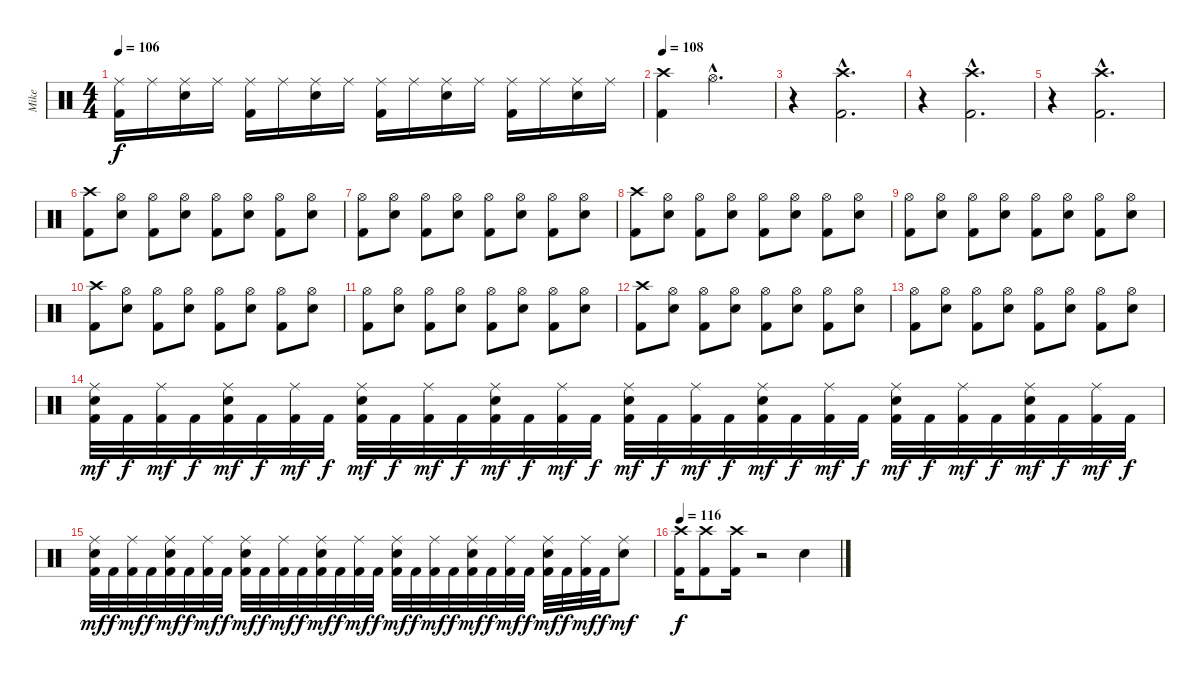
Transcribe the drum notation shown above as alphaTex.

\track ("Mike" "Mike") {instrument percussion}
\staff {score}
\articulation defaults
\ts (4 4)
\tempo 106
\clef neutral
\ks c
("Ride (middle)" "Kick (hit) 2").16{dy f} "Ride (middle)".16 ("Ride (middle)" "Snare (hit) 2").16 "Ride (middle)".16 ("Ride (middle)" "Kick (hit) 2").16 "Ride (middle)".16 ("Ride (middle)" "Snare (hit) 2").16 "Ride (middle)".16 ("Ride (middle)" "Kick (hit) 2").16 "Ride (middle)".16 ("Ride (middle)" "Snare (hit) 2").16 "Ride (middle)".16 ("Ride (middle)" "Kick (hit) 2").16 "Ride (middle)".16 ("Ride (middle)" "Snare (hit) 2").16 "Ride (middle)".16 |
\tempo 108
("Crash high (hit)" "Kick (hit) 2").4 "Hi-Hat (open)"{hac}.2{d} |
r.4 ("Crash high (hit)"{hac} "Kick (hit) 2"{hac}).2{d} |
r.4 ("Crash high (hit)"{hac} "Kick (hit) 2"{hac}).2{d} |
r.4 ("Crash high (hit)"{hac} "Kick (hit) 2"{hac}).2{d} |
("Crash high (hit)" "Kick (hit) 2").8 ("Hi-Hat (open)" "Snare (hit) 2").8 ("Hi-Hat (open)" "Kick (hit) 2").8 ("Hi-Hat (open)" "Snare (hit) 2").8 ("Hi-Hat (open)" "Kick (hit) 2").8 ("Hi-Hat (open)" "Snare (hit) 2").8 ("Hi-Hat (open)" "Kick (hit) 2").8 ("Hi-Hat (open)" "Snare (hit) 2").8 |
("Hi-Hat (open)" "Kick (hit) 2").8 ("Hi-Hat (open)" "Snare (hit) 2").8 ("Hi-Hat (open)" "Kick (hit) 2").8 ("Hi-Hat (open)" "Snare (hit) 2").8 ("Hi-Hat (open)" "Kick (hit) 2").8 ("Hi-Hat (open)" "Snare (hit) 2").8 ("Hi-Hat (open)" "Kick (hit) 2").8 ("Hi-Hat (open)" "Snare (hit) 2").8 |
("Crash high (hit)" "Kick (hit) 2").8 ("Hi-Hat (open)" "Snare (hit) 2").8 ("Hi-Hat (open)" "Kick (hit) 2").8 ("Hi-Hat (open)" "Snare (hit) 2").8 ("Hi-Hat (open)" "Kick (hit) 2").8 ("Hi-Hat (open)" "Snare (hit) 2").8 ("Hi-Hat (open)" "Kick (hit) 2").8 ("Hi-Hat (open)" "Snare (hit) 2").8 |
("Hi-Hat (open)" "Kick (hit) 2").8 ("Hi-Hat (open)" "Snare (hit) 2").8 ("Hi-Hat (open)" "Kick (hit) 2").8 ("Hi-Hat (open)" "Snare (hit) 2").8 ("Hi-Hat (open)" "Kick (hit) 2").8 ("Hi-Hat (open)" "Snare (hit) 2").8 ("Hi-Hat (open)" "Kick (hit) 2").8 ("Hi-Hat (open)" "Snare (hit) 2").8 |
("Crash high (hit)" "Kick (hit) 2").8 ("Hi-Hat (open)" "Snare (hit) 2").8 ("Hi-Hat (open)" "Kick (hit) 2").8 ("Hi-Hat (open)" "Snare (hit) 2").8 ("Hi-Hat (open)" "Kick (hit) 2").8 ("Hi-Hat (open)" "Snare (hit) 2").8 ("Hi-Hat (open)" "Kick (hit) 2").8 ("Hi-Hat (open)" "Snare (hit) 2").8 |
("Hi-Hat (open)" "Kick (hit) 2").8 ("Hi-Hat (open)" "Snare (hit) 2").8 ("Hi-Hat (open)" "Kick (hit) 2").8 ("Hi-Hat (open)" "Snare (hit) 2").8 ("Hi-Hat (open)" "Kick (hit) 2").8 ("Hi-Hat (open)" "Snare (hit) 2").8 ("Hi-Hat (open)" "Kick (hit) 2").8 ("Hi-Hat (open)" "Snare (hit) 2").8 |
("Crash high (hit)" "Kick (hit) 2").8 ("Hi-Hat (open)" "Snare (hit) 2").8 ("Hi-Hat (open)" "Kick (hit) 2").8 ("Hi-Hat (open)" "Snare (hit) 2").8 ("Hi-Hat (open)" "Kick (hit) 2").8 ("Hi-Hat (open)" "Snare (hit) 2").8 ("Hi-Hat (open)" "Kick (hit) 2").8 ("Hi-Hat (open)" "Snare (hit) 2").8 |
("Hi-Hat (open)" "Kick (hit) 2").8 ("Hi-Hat (open)" "Snare (hit) 2").8 ("Hi-Hat (open)" "Kick (hit) 2").8 ("Hi-Hat (open)" "Snare (hit) 2").8 ("Hi-Hat (open)" "Kick (hit) 2").8 ("Hi-Hat (open)" "Snare (hit) 2").8 ("Hi-Hat (open)" "Kick (hit) 2").8 ("Hi-Hat (open)" "Snare (hit) 2").8 |
("Ride (middle)" "Snare (hit) 2" "Kick (hit) 2").32{dy mf} "Kick (hit) 2".32{dy f} ("Ride (middle)" "Kick (hit) 2").32{dy mf} "Kick (hit) 2".32{dy f} ("Ride (middle)" "Snare (hit) 2" "Kick (hit) 2").32{dy mf} "Kick (hit) 2".32{dy f} ("Ride (middle)" "Kick (hit) 2").32{dy mf} "Kick (hit) 2".32{dy f} ("Ride (middle)" "Snare (hit) 2" "Kick (hit) 2").32{dy mf} "Kick (hit) 2".32{dy f} ("Ride (middle)" "Kick (hit) 2").32{dy mf} "Kick (hit) 2".32{dy f} ("Ride (middle)" "Snare (hit) 2" "Kick (hit) 2").32{dy mf} "Kick (hit) 2".32{dy f} ("Ride (middle)" "Kick (hit) 2").32{dy mf} "Kick (hit) 2".32{dy f} ("Ride (middle)" "Snare (hit) 2" "Kick (hit) 2").32{dy mf} "Kick (hit) 2".32{dy f} ("Ride (middle)" "Kick (hit) 2").32{dy mf} "Kick (hit) 2".32{dy f} ("Ride (middle)" "Snare (hit) 2" "Kick (hit) 2").32{dy mf} "Kick (hit) 2".32{dy f} ("Ride (middle)" "Kick (hit) 2").32{dy mf} "Kick (hit) 2".32{dy f} ("Ride (middle)" "Snare (hit) 2" "Kick (hit) 2").32{dy mf} "Kick (hit) 2".32{dy f} ("Ride (middle)" "Kick (hit) 2").32{dy mf} "Kick (hit) 2".32{dy f} ("Ride (middle)" "Snare (hit) 2" "Kick (hit) 2").32{dy mf} "Kick (hit) 2".32{dy f} ("Ride (middle)" "Kick (hit) 2").32{dy mf} "Kick (hit) 2".32{dy f} |
("Ride (middle)" "Snare (hit) 2" "Kick (hit) 2").32{dy mf} "Kick (hit) 2".32{dy f} ("Ride (middle)" "Kick (hit) 2").32{dy mf} "Kick (hit) 2".32{dy f} ("Ride (middle)" "Snare (hit) 2" "Kick (hit) 2").32{dy mf} "Kick (hit) 2".32{dy f} ("Ride (middle)" "Kick (hit) 2").32{dy mf} "Kick (hit) 2".32{dy f} ("Ride (middle)" "Snare (hit) 2" "Kick (hit) 2").32{dy mf} "Kick (hit) 2".32{dy f} ("Ride (middle)" "Kick (hit) 2").32{dy mf} "Kick (hit) 2".32{dy f} ("Ride (middle)" "Snare (hit) 2" "Kick (hit) 2").32{dy mf} "Kick (hit) 2".32{dy f} ("Ride (middle)" "Kick (hit) 2").32{dy mf} "Kick (hit) 2".32{dy f} ("Ride (middle)" "Snare (hit) 2" "Kick (hit) 2").32{dy mf} "Kick (hit) 2".32{dy f} ("Ride (middle)" "Kick (hit) 2").32{dy mf} "Kick (hit) 2".32{dy f} ("Ride (middle)" "Snare (hit) 2" "Kick (hit) 2").32{dy mf} "Kick (hit) 2".32{dy f} ("Ride (middle)" "Kick (hit) 2").32{dy mf} "Kick (hit) 2".32{dy f} ("Ride (middle)" "Snare (hit) 2" "Kick (hit) 2").32{dy mf} "Kick (hit) 2".32{dy f} ("Ride (middle)" "Kick (hit) 2").32{dy mf} "Kick (hit) 2".32{dy f} ("Ride (middle)" "Snare (hit) 2").8{dy mf} |
\tempo 116
("Crash high (hit)" "Kick (hit) 2").16{dy f} ("Crash high (hit)" "Kick (hit) 2").8 ("Crash high (hit)" "Kick (hit) 2").16 r.2 "Snare (hit)".4
